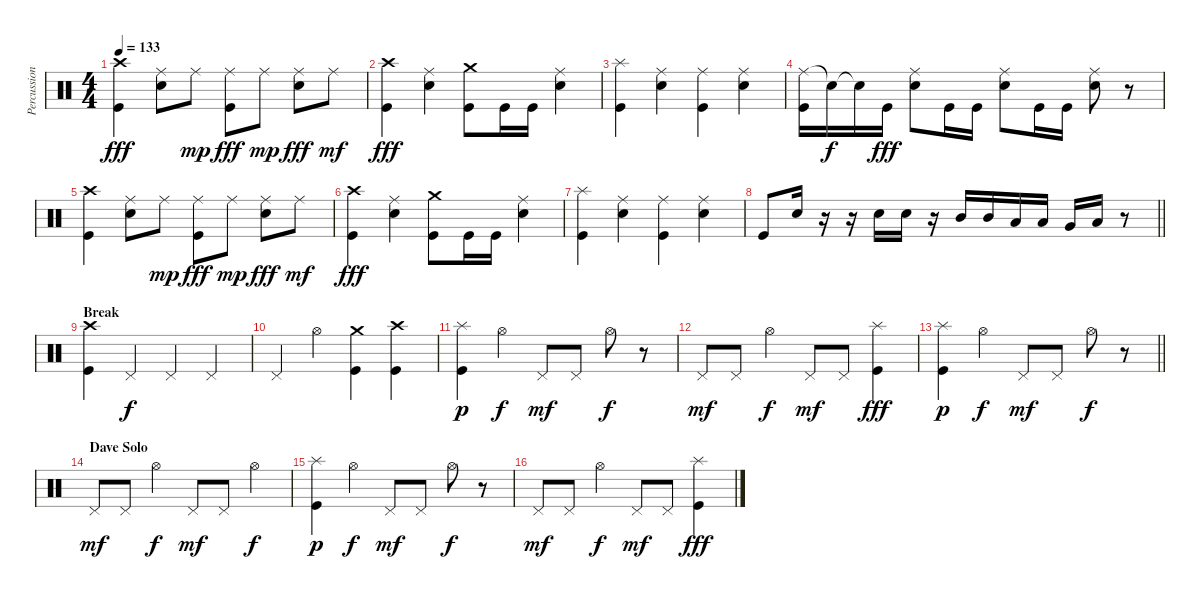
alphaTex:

\track ("Percussion/Nicko McBrain" "Percussion") {instrument percussion}
\staff {score}
\articulation defaults
\ts (4 4)
\tempo 133
\clef neutral
\ks c
("Crash high (hit)" "Kick (hit)").4{dy fff} ("Ride (middle)" "Electric Snare (hit)").8 "Ride (middle)".8{dy mp} ("Ride (middle)" "Kick (hit)").8{dy fff} "Ride (middle)".8{dy mp} ("Ride (middle)" "Electric Snare (hit)").8{dy fff} "Ride (middle)".8{dy mf} |
("Crash high (hit)" "Kick (hit)").4{dy fff} ("Ride (middle)" "Electric Snare (hit)").4 ("Crash medium (hit)" "Kick (hit)").8 "Kick (hit)".16 "Kick (hit)".16 ("Ride (middle)" "Electric Snare (hit)").4 |
("Splash (hit)" "Kick (hit)").4 ("Ride (middle)" "Electric Snare (hit)").4 ("Ride (middle)" "Kick (hit)").4 ("Ride (middle)" "Electric Snare (hit)").4 |
("Ride (middle)" "Kick (hit)").16 "Snare (hit)"{t}.16{dy f} "Snare (hit)"{t}.16 "Kick (hit)".16{dy fff} ("Ride (middle)" "Electric Snare (hit)").8 "Kick (hit)".16 "Kick (hit)".16 ("Ride (middle)" "Electric Snare (hit)").8 "Kick (hit)".16 "Kick (hit)".16 ("Ride (middle)" "Electric Snare (hit)").8 r.8 |
("Crash high (hit)" "Kick (hit)").4 ("Ride (middle)" "Electric Snare (hit)").8 "Ride (middle)".8{dy mp} ("Ride (middle)" "Kick (hit)").8{dy fff} "Ride (middle)".8{dy mp} ("Ride (middle)" "Electric Snare (hit)").8{dy fff} "Ride (middle)".8{dy mf} |
("Crash high (hit)" "Kick (hit)").4{dy fff} ("Ride (middle)" "Electric Snare (hit)").4 ("Crash medium (hit)" "Kick (hit)").8 "Kick (hit)".16 "Kick (hit)".16 ("Ride (middle)" "Electric Snare (hit)").4 |
("Splash (hit)" "Kick (hit)").4 ("Ride (middle)" "Electric Snare (hit)").4 ("Ride (middle)" "Kick (hit)").4 ("Ride (middle)" "Electric Snare (hit)").4 |
\barLineRight lightlight "Kick (hit)".8 "Electric Snare (hit)".16
r.16 r.16 "Electric Snare (hit)".16 "Electric Snare (hit)".16 r.16 "Mid Tom (hit)".16 "Mid Tom (hit)".16 "Low Tom (hit)".16 "Low Tom (hit)".16 "Very Low Tom (hit)".16 "Low Floor Tom (hit)".16 r.8 |
\section ("" "Break")
("Crash high (hit)" "Kick (hit)").4 "Pedal Hi-Hat (hit)".4{dy f} "Pedal Hi-Hat (hit)".4 "Pedal Hi-Hat (hit)".4 |
"Pedal Hi-Hat (hit)".4 "Hi-Hat (open)".4 ("Crash medium (hit)" "Kick (hit)").4 ("Crash high (hit)" "Kick (hit)").4 |
("Splash (hit)" "Kick (hit)").4{dy p} "Hi-Hat (open)".4{dy f} "Pedal Hi-Hat (hit)".8{dy mf} "Pedal Hi-Hat (hit)".8 "Hi-Hat (open)".8{dy f} r.8 |
"Pedal Hi-Hat (hit)".8{dy mf} "Pedal Hi-Hat (hit)".8 "Hi-Hat (open)".4{dy f} "Pedal Hi-Hat (hit)".8{dy mf} "Pedal Hi-Hat (hit)".8 ("Splash (hit)" "Kick (hit)").4{dy fff} |
\barLineRight lightlight
("Splash (hit)" "Kick (hit)").4{dy p} "Hi-Hat (open)".4{dy f} "Pedal Hi-Hat (hit)".8{dy mf} "Pedal Hi-Hat (hit)".8 "Hi-Hat (open)".8{dy f} r.8 |
\section ("" "Dave Solo")
"Pedal Hi-Hat (hit)".8{dy mf} "Pedal Hi-Hat (hit)".8 "Hi-Hat (open)".4{dy f} "Pedal Hi-Hat (hit)".8{dy mf} "Pedal Hi-Hat (hit)".8 "Hi-Hat (open)".4{dy f} |
("Splash (hit)" "Kick (hit)").4{dy p} "Hi-Hat (open)".4{dy f} "Pedal Hi-Hat (hit)".8{dy mf} "Pedal Hi-Hat (hit)".8 "Hi-Hat (open)".8{dy f} r.8 |
"Pedal Hi-Hat (hit)".8{dy mf} "Pedal Hi-Hat (hit)".8 "Hi-Hat (open)".4{dy f} "Pedal Hi-Hat (hit)".8{dy mf} "Pedal Hi-Hat (hit)".8 ("Splash (hit)" "Kick (hit)").4{dy fff}
